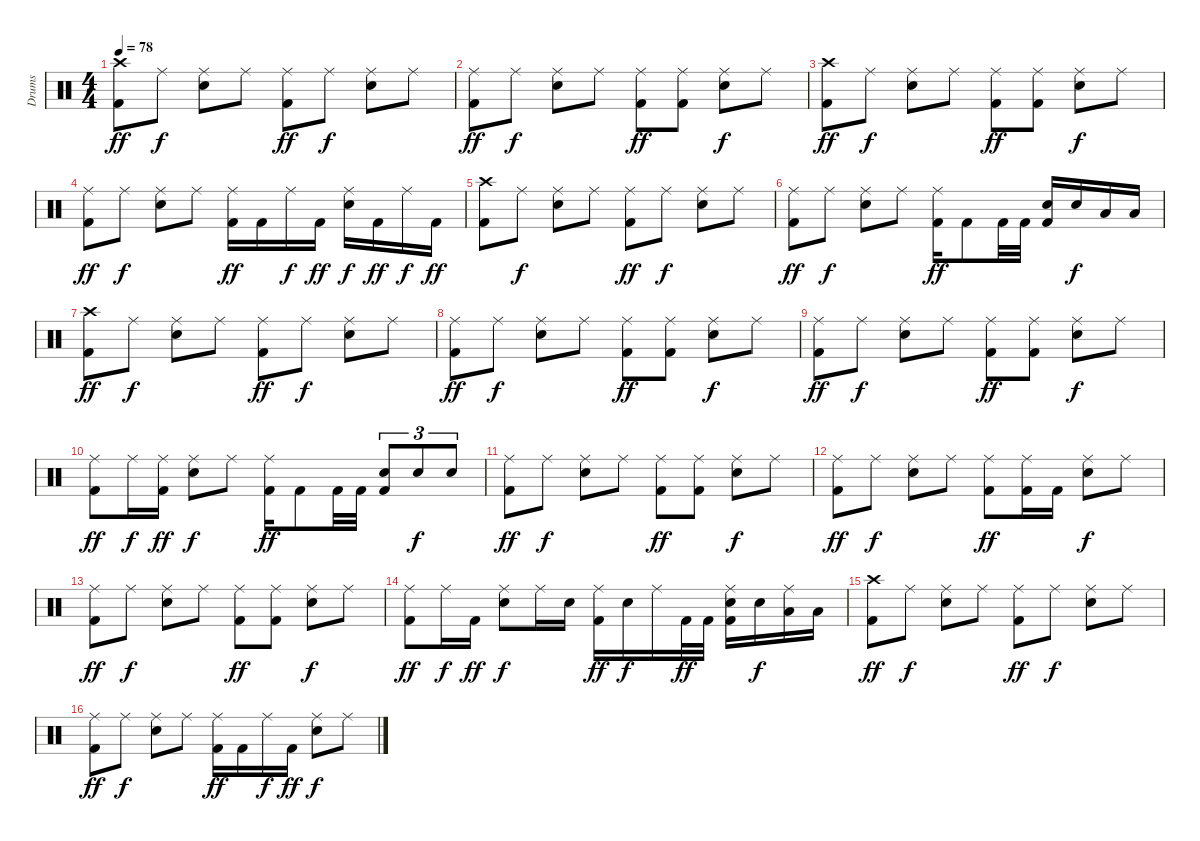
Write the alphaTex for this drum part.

\track ("Drums" "Drums") {instrument percussion}
\staff {score}
\articulation defaults
\ts (4 4)
\tempo 78
\clef neutral
\ks c
("Crash high (hit)" "Kick (hit) 2").8{dy ff} "Ride (middle)".8{dy f} ("Ride (middle)" "Snare (hit) 2").8 "Ride (middle)".8 ("Ride (middle)" "Kick (hit) 2").8{dy ff} "Ride (middle)".8{dy f} ("Ride (middle)" "Snare (hit) 2").8 "Ride (middle)".8 |
("Ride (middle)" "Kick (hit) 2").8{dy ff} "Ride (middle)".8{dy f} ("Ride (middle)" "Snare (hit) 2").8 "Ride (middle)".8 ("Ride (middle)" "Kick (hit) 2").8{dy ff} ("Ride (middle)" "Kick (hit) 2").8 ("Ride (middle)" "Snare (hit) 2").8{dy f} "Ride (middle)".8 |
("Crash high (hit)" "Kick (hit) 2").8{dy ff} "Ride (middle)".8{dy f} ("Ride (middle)" "Snare (hit) 2").8 "Ride (middle)".8 ("Ride (middle)" "Kick (hit) 2").8{dy ff} ("Ride (middle)" "Kick (hit) 2").8 ("Ride (middle)" "Snare (hit) 2").8{dy f} "Ride (middle)".8 |
("Ride (middle)" "Kick (hit) 2").8{dy ff} "Ride (middle)".8{dy f} ("Ride (middle)" "Snare (hit) 2").8 "Ride (middle)".8 ("Ride (middle)" "Kick (hit) 2").16{dy ff} "Kick (hit) 2".16 "Ride (middle)".16{dy f} "Kick (hit) 2".16{dy ff} ("Ride (middle)" "Snare (hit) 2").16{dy f} "Kick (hit) 2".16{dy ff} "Ride (middle)".16{dy f} "Kick (hit) 2".16{dy ff} |
("Crash high (hit)" "Kick (hit) 2").8 "Ride (middle)".8{dy f} ("Ride (middle)" "Snare (hit) 2").8 "Ride (middle)".8 ("Ride (middle)" "Kick (hit) 2").8{dy ff} "Ride (middle)".8{dy f} ("Ride (middle)" "Snare (hit) 2").8 "Ride (middle)".8 |
("Ride (middle)" "Kick (hit) 2").8{dy ff} "Ride (middle)".8{dy f} ("Ride (middle)" "Snare (hit) 2").8 "Ride (middle)".8 ("Ride (middle)" "Kick (hit) 2").16{dy ff} "Kick (hit) 2".8 "Kick (hit) 2".32 "Kick (hit) 2".32 ("Snare (hit) 2" "Kick (hit) 2").16 "Snare (hit) 2".16{dy f} "Low Tom (hit)".16 "Low Tom (hit)".16 |
("Crash high (hit)" "Kick (hit) 2").8{dy ff} "Ride (middle)".8{dy f} ("Ride (middle)" "Snare (hit) 2").8 "Ride (middle)".8 ("Ride (middle)" "Kick (hit) 2").8{dy ff} "Ride (middle)".8{dy f} ("Ride (middle)" "Snare (hit) 2").8 "Ride (middle)".8 |
("Ride (middle)" "Kick (hit) 2").8{dy ff} "Ride (middle)".8{dy f} ("Ride (middle)" "Snare (hit) 2").8 "Ride (middle)".8 ("Ride (middle)" "Kick (hit) 2").8{dy ff} ("Ride (middle)" "Kick (hit) 2").8 ("Ride (middle)" "Snare (hit) 2").8{dy f} "Ride (middle)".8 |
("Ride (middle)" "Kick (hit) 2").8{dy ff} "Ride (middle)".8{dy f} ("Ride (middle)" "Snare (hit) 2").8 "Ride (middle)".8 ("Ride (middle)" "Kick (hit) 2").8{dy ff} ("Ride (middle)" "Kick (hit) 2").8 ("Ride (middle)" "Snare (hit) 2").8{dy f} "Ride (middle)".8 |
("Ride (middle)" "Kick (hit) 2").8{dy ff} "Ride (middle)".16{dy f} ("Ride (middle)" "Kick (hit) 2").16{dy ff} ("Ride (middle)" "Snare (hit) 2").8{dy f} "Ride (middle)".8 ("Ride (middle)" "Kick (hit) 2").16{dy ff} "Kick (hit) 2".8 "Kick (hit) 2".32 "Kick (hit) 2".32 ("Snare (hit) 2" "Kick (hit) 2").8{tu (3 2)} "Snare (hit) 2".8{tu (3 2) dy f} "Snare (hit) 2".8{tu (3 2)} |
("Ride (middle)" "Kick (hit) 2").8{dy ff} "Ride (middle)".8{dy f} ("Ride (middle)" "Snare (hit) 2").8 "Ride (middle)".8 ("Ride (middle)" "Kick (hit) 2").8{dy ff} ("Ride (middle)" "Kick (hit) 2").8 ("Ride (middle)" "Snare (hit) 2").8{dy f} "Ride (middle)".8 |
("Ride (middle)" "Kick (hit) 2").8{dy ff} "Ride (middle)".8{dy f} ("Ride (middle)" "Snare (hit) 2").8 "Ride (middle)".8 ("Ride (middle)" "Kick (hit) 2").8{dy ff} ("Ride (middle)" "Kick (hit) 2").16 "Kick (hit) 2".16 ("Ride (middle)" "Snare (hit) 2").8{dy f} "Ride (middle)".8 |
("Ride (middle)" "Kick (hit) 2").8{dy ff} "Ride (middle)".8{dy f} ("Ride (middle)" "Snare (hit) 2").8 "Ride (middle)".8 ("Ride (middle)" "Kick (hit) 2").8{dy ff} ("Ride (middle)" "Kick (hit) 2").8 ("Ride (middle)" "Snare (hit) 2").8{dy f} "Ride (middle)".8 |
("Ride (middle)" "Kick (hit) 2").8{dy ff} "Ride (middle)".16{dy f} "Kick (hit) 2".16{dy ff} ("Ride (middle)" "Snare (hit) 2").8{dy f} "Ride (middle)".16 "Snare (hit) 2".16 ("Ride (middle)" "Kick (hit) 2").16{dy ff} "Snare (hit) 2".16{dy f} "Ride (middle)".16 "Kick (hit) 2".32{dy ff} "Kick (hit) 2".32 ("Ride (middle)" "Snare (hit) 2" "Kick (hit) 2").16 "Snare (hit) 2".16{dy f} ("Ride (middle)" "Low Tom (hit)").16 "Low Tom (hit)".16 |
("Crash high (hit)" "Kick (hit) 2").8{dy ff} "Ride (middle)".8{dy f} ("Ride (middle)" "Snare (hit) 2").8 "Ride (middle)".8 ("Ride (middle)" "Kick (hit) 2").8{dy ff} "Ride (middle)".8{dy f} ("Ride (middle)" "Snare (hit) 2").8 "Ride (middle)".8 |
("Ride (middle)" "Kick (hit) 2").8{dy ff} "Ride (middle)".8{dy f} ("Ride (middle)" "Snare (hit) 2").8 "Ride (middle)".8 ("Ride (middle)" "Kick (hit) 2").16{dy ff} "Kick (hit) 2".16 "Ride (middle)".16{dy f} "Kick (hit) 2".16{dy ff} ("Ride (middle)" "Snare (hit) 2").8{dy f} "Ride (middle)".8
